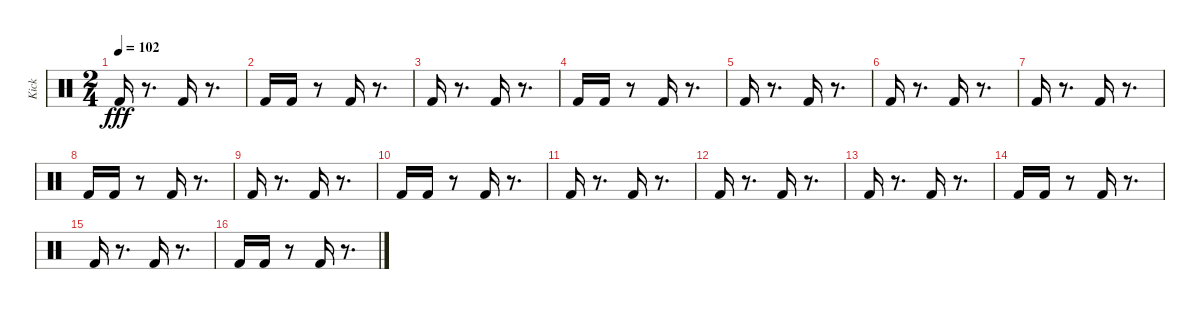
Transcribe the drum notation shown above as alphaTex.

\track ("Kick" "Kick") {instrument percussion}
\staff {score}
\articulation defaults
\ts (2 4)
\tempo 102
\clef neutral
\ks c "Kick (hit) 2".16{dy fff}
r.8{d} "Kick (hit) 2".16 r.8{d} |
"Kick (hit) 2".16 "Kick (hit) 2".16 r.8 "Kick (hit) 2".16 r.8{d} |
"Kick (hit) 2".16 r.8{d} "Kick (hit) 2".16 r.8{d} |
"Kick (hit) 2".16 "Kick (hit) 2".16 r.8 "Kick (hit) 2".16 r.8{d} |
"Kick (hit) 2".16 r.8{d} "Kick (hit) 2".16 r.8{d} |
"Kick (hit) 2".16 r.8{d} "Kick (hit) 2".16 r.8{d} |
"Kick (hit) 2".16 r.8{d} "Kick (hit) 2".16 r.8{d} |
"Kick (hit) 2".16 "Kick (hit) 2".16 r.8 "Kick (hit) 2".16 r.8{d} |
"Kick (hit) 2".16 r.8{d} "Kick (hit) 2".16 r.8{d} |
"Kick (hit) 2".16 "Kick (hit) 2".16 r.8 "Kick (hit) 2".16 r.8{d} |
"Kick (hit) 2".16 r.8{d} "Kick (hit) 2".16 r.8{d} |
"Kick (hit) 2".16 r.8{d} "Kick (hit) 2".16 r.8{d} |
"Kick (hit) 2".16 r.8{d} "Kick (hit) 2".16 r.8{d} |
"Kick (hit) 2".16 "Kick (hit) 2".16 r.8 "Kick (hit) 2".16 r.8{d} |
"Kick (hit) 2".16 r.8{d} "Kick (hit) 2".16 r.8{d} |
"Kick (hit) 2".16 "Kick (hit) 2".16 r.8 "Kick (hit) 2".16 r.8{d}
